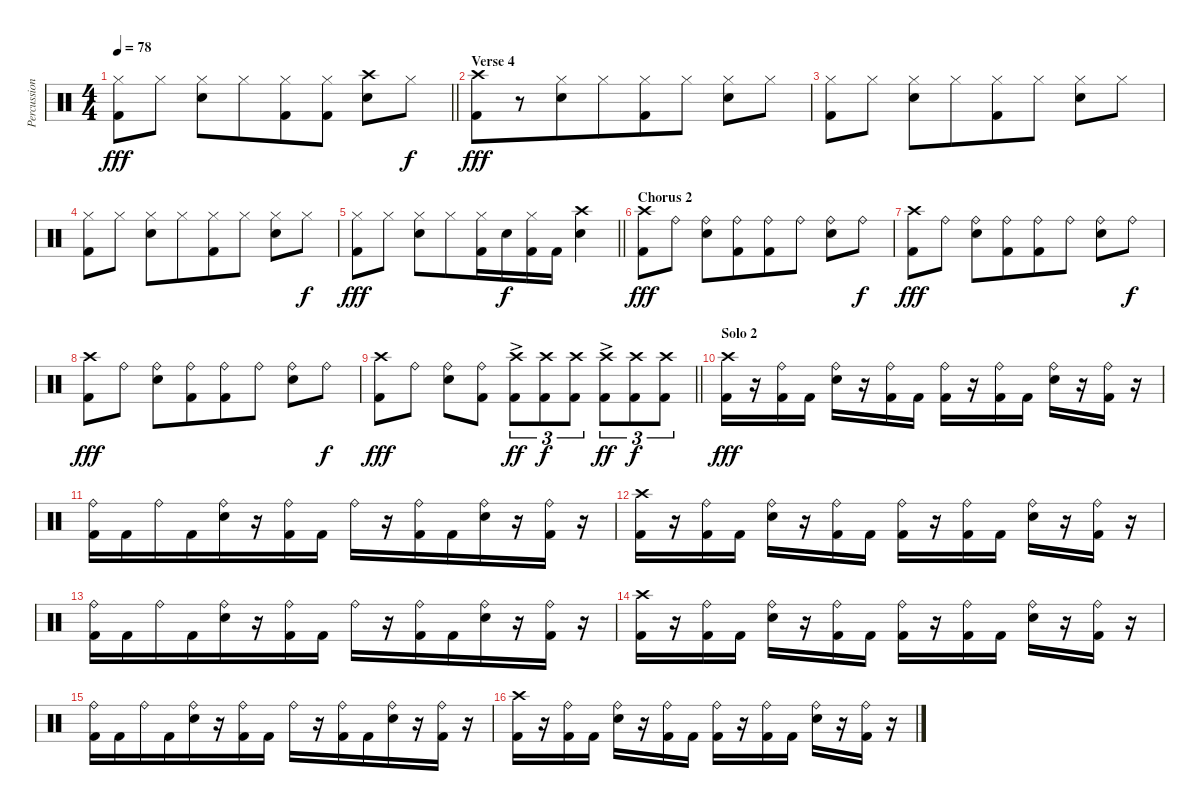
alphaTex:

\track ("Percussion" "Percussion") {instrument percussion}
\staff {score}
\articulation defaults
\ts (4 4)
\tempo 78
\clef neutral
\barLineRight lightlight
\ks c
("Kick (hit) 2" "Hi-Hat (closed)").8{dy fff beam merge} "Hi-Hat (closed)".8 ("Electric Snare (hit)" "Hi-Hat (closed)").8 "Hi-Hat (closed)".8{beam merge} ("Kick (hit) 2" "Hi-Hat (closed)").8 ("Kick (hit) 2" "Hi-Hat (closed)").8 ("Crash high (hit)" "Electric Snare (hit)").8{beam merge} "Hi-Hat (closed)".8{dy f} |
\section ("" "Verse 4")
("Kick (hit) 2" "Crash high (hit)").8{dy fff beam merge} r.8 ("Electric Snare (hit)" "Hi-Hat (closed)").8 "Hi-Hat (closed)".8{beam merge} ("Kick (hit) 2" "Hi-Hat (closed)").8 "Hi-Hat (closed)".8 ("Electric Snare (hit)" "Hi-Hat (closed)").8{beam merge} "Hi-Hat (closed)".8 |
("Kick (hit) 2" "Hi-Hat (closed)").8{beam merge} "Hi-Hat (closed)".8 ("Electric Snare (hit)" "Hi-Hat (closed)").8 "Hi-Hat (closed)".8{beam merge} ("Kick (hit) 2" "Hi-Hat (closed)").8 "Hi-Hat (closed)".8 ("Electric Snare (hit)" "Hi-Hat (closed)").8{beam merge} "Hi-Hat (closed)".8 |
("Kick (hit) 2" "Hi-Hat (closed)").8{beam merge} "Hi-Hat (closed)".8 ("Electric Snare (hit)" "Hi-Hat (closed)").8 "Hi-Hat (closed)".8{beam merge} ("Kick (hit) 2" "Hi-Hat (closed)").8 "Hi-Hat (closed)".8 ("Electric Snare (hit)" "Hi-Hat (closed)").8 "Hi-Hat (closed)".8{dy f} |
\barLineRight lightlight
("Kick (hit) 2" "Hi-Hat (closed)").8{dy fff beam merge} "Hi-Hat (closed)".8 ("Electric Snare (hit)" "Hi-Hat (closed)").8 "Hi-Hat (closed)".8{beam merge} ("Kick (hit) 2" "Hi-Hat (closed)").16 "Electric Snare (hit)".16{dy f} ("Kick (hit) 2" "Hi-Hat (closed)").16 "Kick (hit) 2".16 ("Electric Snare (hit)" "Crash high (hit)").4 |
\section ("" "Chorus 2")
("Kick (hit) 2" "Crash high (hit)").8{dy fff beam merge} "Ride (bell)".8 ("Electric Snare (hit)" "Ride (bell)").8 ("Kick (hit) 2" "Ride (bell)").8{beam merge} ("Kick (hit) 2" "Ride (bell)").8 "Ride (bell)".8 ("Electric Snare (hit)" "Ride (bell)").8 "Ride (bell)".8{dy f} |
("Kick (hit) 2" "Crash high (hit)").8{dy fff beam merge} "Ride (bell)".8 ("Electric Snare (hit)" "Ride (bell)").8 ("Kick (hit) 2" "Ride (bell)").8{beam merge} ("Kick (hit) 2" "Ride (bell)").8 "Ride (bell)".8 ("Electric Snare (hit)" "Ride (bell)").8 "Ride (bell)".8{dy f} |
("Kick (hit) 2" "Crash high (hit)").8{dy fff beam merge} "Ride (bell)".8 ("Electric Snare (hit)" "Ride (bell)").8 ("Kick (hit) 2" "Ride (bell)").8{beam merge} ("Kick (hit) 2" "Ride (bell)").8 "Ride (bell)".8 ("Electric Snare (hit)" "Ride (bell)").8 "Ride (bell)".8{dy f} |
\barLineRight lightlight
("Kick (hit) 2" "Crash high (hit)").8{dy fff beam merge} "Ride (bell)".8 ("Electric Snare (hit)" "Ride (bell)").8 ("Kick (hit) 2" "Ride (bell)").8 ("Kick (hit) 2" "Crash high (hit)"{ac}).8{tu (3 2) dy ff beam merge} ("Kick (hit) 2" "Crash high (hit)").8{tu (3 2) dy f beam merge} ("Kick (hit) 2" "Crash high (hit)").8{tu (3 2)} ("Kick (hit) 2" "Crash high (hit)"{ac}).8{tu (3 2) dy ff beam merge} ("Kick (hit) 2" "Crash high (hit)").8{tu (3 2) dy f beam merge} ("Kick (hit) 2" "Crash high (hit)").8{tu (3 2)} |
\section ("" "Solo 2")
("Kick (hit) 2" "Crash high (hit)").16{dy fff beam merge} r.16 ("Kick (hit) 2" "Ride (bell)").16{beam merge} "Kick (hit) 2".16 ("Electric Snare (hit)" "Ride (bell)").16{beam merge} r.16{beam merge} ("Kick (hit) 2" "Ride (bell)").16 "Kick (hit) 2".16 ("Kick (hit) 2" "Ride (bell)").16{beam merge} r.16{beam merge} ("Kick (hit) 2" "Ride (bell)").16{beam merge} "Kick (hit) 2".16 ("Electric Snare (hit)" "Ride (bell)").16{beam merge} r.16 ("Kick (hit) 2" "Ride (bell)").16 r.16 |
("Kick (hit) 2" "Ride (bell)").16{beam merge} "Kick (hit) 2".16 "Ride (bell)".16 "Kick (hit) 2".16{beam merge} ("Electric Snare (hit)" "Ride (bell)").16 r.16 ("Kick (hit) 2" "Ride (bell)").16 "Kick (hit) 2".16 "Ride (bell)".16 r.16 ("Kick (hit) 2" "Ride (bell)").16 "Kick (hit) 2".16{beam merge} ("Electric Snare (hit)" "Ride (bell)").16 r.16 ("Kick (hit) 2" "Ride (bell)").16 r.16 |
("Kick (hit) 2" "Crash high (hit)").16{beam merge} r.16 ("Kick (hit) 2" "Ride (bell)").16{beam merge} "Kick (hit) 2".16 ("Electric Snare (hit)" "Ride (bell)").16{beam merge} r.16{beam merge} ("Kick (hit) 2" "Ride (bell)").16 "Kick (hit) 2".16 ("Kick (hit) 2" "Ride (bell)").16{beam merge} r.16{beam merge} ("Kick (hit) 2" "Ride (bell)").16{beam merge} "Kick (hit) 2".16 ("Electric Snare (hit)" "Ride (bell)").16{beam merge} r.16 ("Kick (hit) 2" "Ride (bell)").16 r.16 |
("Kick (hit) 2" "Ride (bell)").16{beam merge} "Kick (hit) 2".16 "Ride (bell)".16 "Kick (hit) 2".16{beam merge} ("Electric Snare (hit)" "Ride (bell)").16 r.16 ("Kick (hit) 2" "Ride (bell)").16 "Kick (hit) 2".16 "Ride (bell)".16 r.16 ("Kick (hit) 2" "Ride (bell)").16 "Kick (hit) 2".16{beam merge} ("Electric Snare (hit)" "Ride (bell)").16 r.16 ("Kick (hit) 2" "Ride (bell)").16 r.16 |
("Kick (hit) 2" "Crash high (hit)").16{beam merge} r.16 ("Kick (hit) 2" "Ride (bell)").16{beam merge} "Kick (hit) 2".16 ("Electric Snare (hit)" "Ride (bell)").16{beam merge} r.16{beam merge} ("Kick (hit) 2" "Ride (bell)").16 "Kick (hit) 2".16 ("Kick (hit) 2" "Ride (bell)").16{beam merge} r.16{beam merge} ("Kick (hit) 2" "Ride (bell)").16{beam merge} "Kick (hit) 2".16 ("Electric Snare (hit)" "Ride (bell)").16{beam merge} r.16 ("Kick (hit) 2" "Ride (bell)").16 r.16 |
("Kick (hit) 2" "Ride (bell)").16{beam merge} "Kick (hit) 2".16 "Ride (bell)".16 "Kick (hit) 2".16{beam merge} ("Electric Snare (hit)" "Ride (bell)").16 r.16 ("Kick (hit) 2" "Ride (bell)").16 "Kick (hit) 2".16 "Ride (bell)".16 r.16 ("Kick (hit) 2" "Ride (bell)").16 "Kick (hit) 2".16{beam merge} ("Electric Snare (hit)" "Ride (bell)").16 r.16 ("Kick (hit) 2" "Ride (bell)").16 r.16 |
("Kick (hit) 2" "Crash high (hit)").16{beam merge} r.16 ("Kick (hit) 2" "Ride (bell)").16{beam merge} "Kick (hit) 2".16 ("Electric Snare (hit)" "Ride (bell)").16{beam merge} r.16{beam merge} ("Kick (hit) 2" "Ride (bell)").16 "Kick (hit) 2".16 ("Kick (hit) 2" "Ride (bell)").16{beam merge} r.16{beam merge} ("Kick (hit) 2" "Ride (bell)").16{beam merge} "Kick (hit) 2".16 ("Electric Snare (hit)" "Ride (bell)").16{beam merge} r.16 ("Kick (hit) 2" "Ride (bell)").16 r.16
